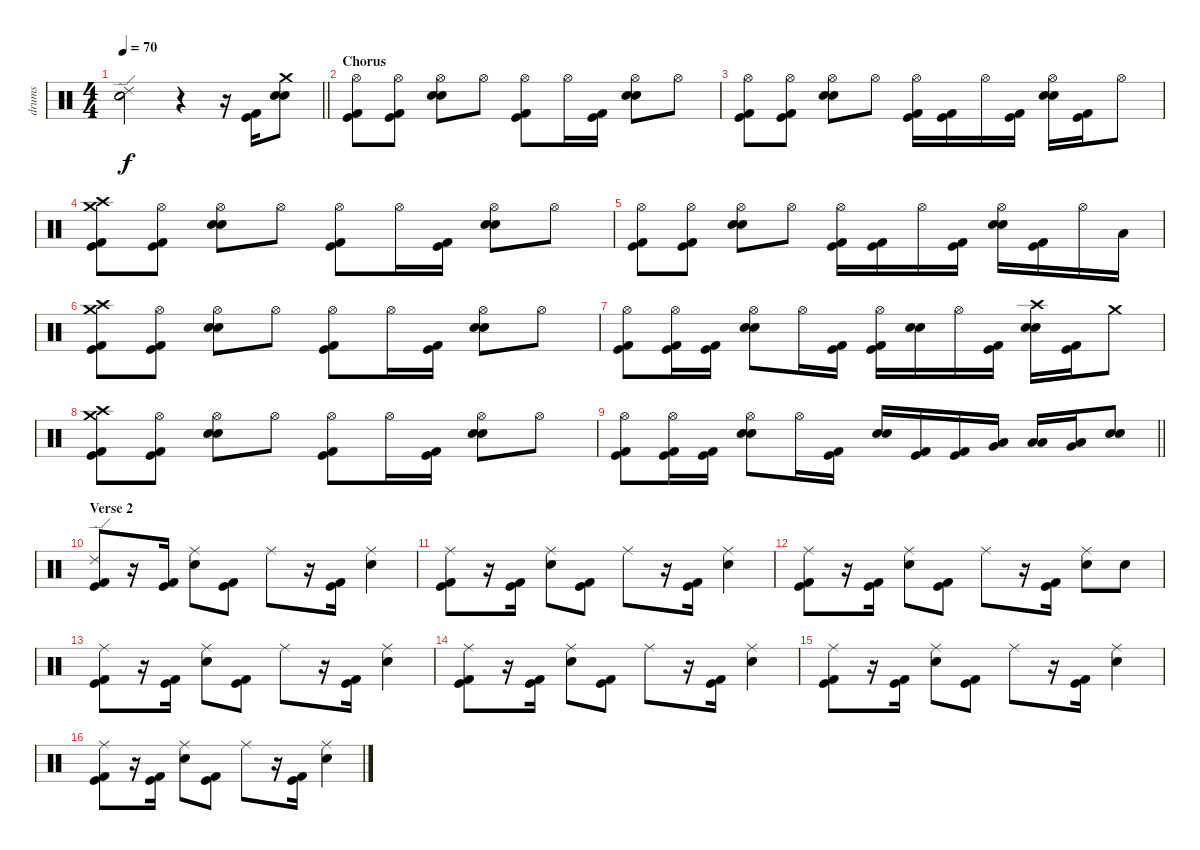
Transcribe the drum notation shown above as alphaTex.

\track ("drums" "drums") {instrument percussion}
\staff {score}
\articulation defaults
\ts (4 4)
\tempo 70
\clef neutral
\barLineRight lightlight
\ks c
("Ride (edge) 2" "Electric Snare (hit)" "Snare (hit) 2").2{dy f} r.4 r.16 ("Kick (hit)" "Kick (hit) 2").16 ("Crash medium (hit)" "Electric Snare (hit)" "Snare (hit) 2").8 |
\section ("" "Chorus")
("Hi-Hat (open)" "Kick (hit) 2" "Kick (hit)").8 ("Hi-Hat (open)" "Kick (hit) 2" "Kick (hit)").8 ("Hi-Hat (open)" "Electric Snare (hit)" "Electric Snare (hit)").8 "Hi-Hat (open)".8 ("Hi-Hat (open)" "Kick (hit) 2" "Kick (hit)").8 "Hi-Hat (open)".16 ("Kick (hit) 2" "Kick (hit)").16 ("Hi-Hat (open)" "Electric Snare (hit)" "Electric Snare (hit)").8 "Hi-Hat (open)".8 |
("Hi-Hat (open)" "Kick (hit) 2" "Kick (hit)").8 ("Hi-Hat (open)" "Kick (hit) 2" "Kick (hit)").8 ("Hi-Hat (open)" "Electric Snare (hit)" "Electric Snare (hit)").8 "Hi-Hat (open)".8 ("Hi-Hat (open)" "Kick (hit) 2" "Kick (hit)").16 ("Kick (hit) 2" "Kick (hit)").16 "Hi-Hat (open)".16 ("Kick (hit) 2" "Kick (hit)").16 ("Hi-Hat (open)" "Electric Snare (hit)" "Electric Snare (hit)").16 ("Kick (hit) 2" "Kick (hit)").16 "Hi-Hat (open)".8 |
("Crash high (hit)" "Crash medium (hit)" "Kick (hit) 2" "Kick (hit)").8 ("Hi-Hat (open)" "Kick (hit) 2" "Kick (hit)").8 ("Hi-Hat (open)" "Electric Snare (hit)" "Electric Snare (hit)").8 "Hi-Hat (open)".8 ("Hi-Hat (open)" "Kick (hit) 2" "Kick (hit)").8 "Hi-Hat (open)".16 ("Kick (hit) 2" "Kick (hit)").16 ("Hi-Hat (open)" "Electric Snare (hit)" "Electric Snare (hit)").8 "Hi-Hat (open)".8 |
("Hi-Hat (open)" "Kick (hit) 2" "Kick (hit)").8 ("Hi-Hat (open)" "Kick (hit) 2" "Kick (hit)").8 ("Hi-Hat (open)" "Electric Snare (hit)" "Electric Snare (hit)").8 "Hi-Hat (open)".8 ("Hi-Hat (open)" "Kick (hit) 2" "Kick (hit)").16 ("Kick (hit) 2" "Kick (hit)").16 "Hi-Hat (open)".16 ("Kick (hit) 2" "Kick (hit)").16 ("Hi-Hat (open)" "Electric Snare (hit)" "Electric Snare (hit)").16 ("Kick (hit) 2" "Kick (hit)").16 "Hi-Hat (open)".16 "Low Floor Tom (hit)".16 |
("Crash high (hit)" "Crash medium (hit)" "Kick (hit) 2" "Kick (hit)").8 ("Hi-Hat (open)" "Kick (hit) 2" "Kick (hit)").8 ("Hi-Hat (open)" "Electric Snare (hit)" "Electric Snare (hit)").8 "Hi-Hat (open)".8 ("Hi-Hat (open)" "Kick (hit) 2" "Kick (hit)").8 "Hi-Hat (open)".16 ("Kick (hit) 2" "Kick (hit)").16 ("Hi-Hat (open)" "Electric Snare (hit)" "Electric Snare (hit)").8 "Hi-Hat (open)".8 |
("Hi-Hat (open)" "Kick (hit) 2" "Kick (hit)").8 ("Hi-Hat (open)" "Kick (hit) 2" "Kick (hit)").16 ("Kick (hit) 2" "Kick (hit)").16 ("Hi-Hat (open)" "Electric Snare (hit)" "Electric Snare (hit)").8 "Hi-Hat (open)".16 ("Kick (hit) 2" "Kick (hit)").16 ("Hi-Hat (open)" "Kick (hit)" "Kick (hit) 2").16 ("Electric Snare (hit)" "Electric Snare (hit)").16 "Hi-Hat (open)".16 ("Kick (hit)" "Kick (hit) 2").16 ("Crash high (hit)" "Electric Snare (hit)" "Electric Snare (hit)").16 ("Kick (hit) 2" "Kick (hit)").16 "Crash medium (hit)".8 |
("Crash high (hit)" "Crash medium (hit)" "Kick (hit) 2" "Kick (hit)").8 ("Hi-Hat (open)" "Kick (hit) 2" "Kick (hit)").8 ("Hi-Hat (open)" "Electric Snare (hit)" "Electric Snare (hit)").8 "Hi-Hat (open)".8 ("Hi-Hat (open)" "Kick (hit) 2" "Kick (hit)").8 "Hi-Hat (open)".16 ("Kick (hit) 2" "Kick (hit)").16 ("Hi-Hat (open)" "Electric Snare (hit)" "Electric Snare (hit)").8 "Hi-Hat (open)".8 |
\barLineRight lightlight
("Hi-Hat (open)" "Kick (hit) 2" "Kick (hit)").8 ("Hi-Hat (open)" "Kick (hit)" "Kick (hit) 2").16 ("Kick (hit)" "Kick (hit) 2").16 ("Hi-Hat (open)" "Electric Snare (hit)" "Electric Snare (hit)").8 "Hi-Hat (open)".16 ("Kick (hit)" "Kick (hit) 2").16 ("Snare (hit) 2" "Electric Snare (hit)").16 ("Kick (hit)" "Kick (hit) 2").16 ("Kick (hit)" "Kick (hit) 2").16 ("Very Low Tom (hit)" "Low Floor Tom (hit)").16 ("Low Tom (hit)" "Low Tom (hit)").16 ("Very Low Tom (hit)" "Low Floor Tom (hit)").16 ("Electric Snare (hit)" "Snare (hit) 2").8 |
\section ("" "Verse 2")
("Ride (edge) 2" "Kick (hit)" "Kick (hit) 2").8{volume 12} r.16 ("Kick (hit)" "Kick (hit) 2").16 ("Ride (middle)" "Electric Snare (hit)").8 ("Kick (hit)" "Kick (hit) 2").8 "Ride (middle)".8 r.16 ("Kick (hit)" "Kick (hit) 2").16 ("Ride (middle)" "Electric Snare (hit)").4 |
("Ride (middle)" "Kick (hit)" "Kick (hit) 2").8 r.16 ("Kick (hit)" "Kick (hit) 2").16 ("Ride (middle)" "Electric Snare (hit)").8 ("Kick (hit)" "Kick (hit) 2").8 "Ride (middle)".8 r.16 ("Kick (hit)" "Kick (hit) 2").16 ("Ride (middle)" "Electric Snare (hit)").4 |
("Ride (middle)" "Kick (hit)" "Kick (hit) 2").8 r.16 ("Kick (hit)" "Kick (hit) 2").16 ("Ride (middle)" "Electric Snare (hit)").8 ("Kick (hit)" "Kick (hit) 2").8 "Ride (middle)".8 r.16 ("Kick (hit)" "Kick (hit) 2").16 ("Ride (middle)" "Electric Snare (hit)").8 "Electric Snare (hit)".8 |
("Ride (middle)" "Kick (hit)" "Kick (hit) 2").8 r.16 ("Kick (hit)" "Kick (hit) 2").16 ("Ride (middle)" "Electric Snare (hit)").8 ("Kick (hit)" "Kick (hit) 2").8 "Ride (middle)".8 r.16 ("Kick (hit)" "Kick (hit) 2").16 ("Ride (middle)" "Electric Snare (hit)").4 |
("Ride (middle)" "Kick (hit)" "Kick (hit) 2").8 r.16 ("Kick (hit)" "Kick (hit) 2").16 ("Ride (middle)" "Electric Snare (hit)").8 ("Kick (hit)" "Kick (hit) 2").8 "Ride (middle)".8 r.16 ("Kick (hit)" "Kick (hit) 2").16 ("Ride (middle)" "Electric Snare (hit)").4 |
("Ride (middle)" "Kick (hit)" "Kick (hit) 2").8 r.16 ("Kick (hit)" "Kick (hit) 2").16 ("Ride (middle)" "Electric Snare (hit)").8 ("Kick (hit)" "Kick (hit) 2").8 "Ride (middle)".8 r.16 ("Kick (hit)" "Kick (hit) 2").16 ("Ride (middle)" "Electric Snare (hit)").4 |
("Ride (middle)" "Kick (hit)" "Kick (hit) 2").8 r.16 ("Kick (hit)" "Kick (hit) 2").16 ("Ride (middle)" "Electric Snare (hit)").8 ("Kick (hit)" "Kick (hit) 2").8 "Ride (middle)".8 r.16 ("Kick (hit)" "Kick (hit) 2").16 ("Ride (middle)" "Electric Snare (hit)").4
